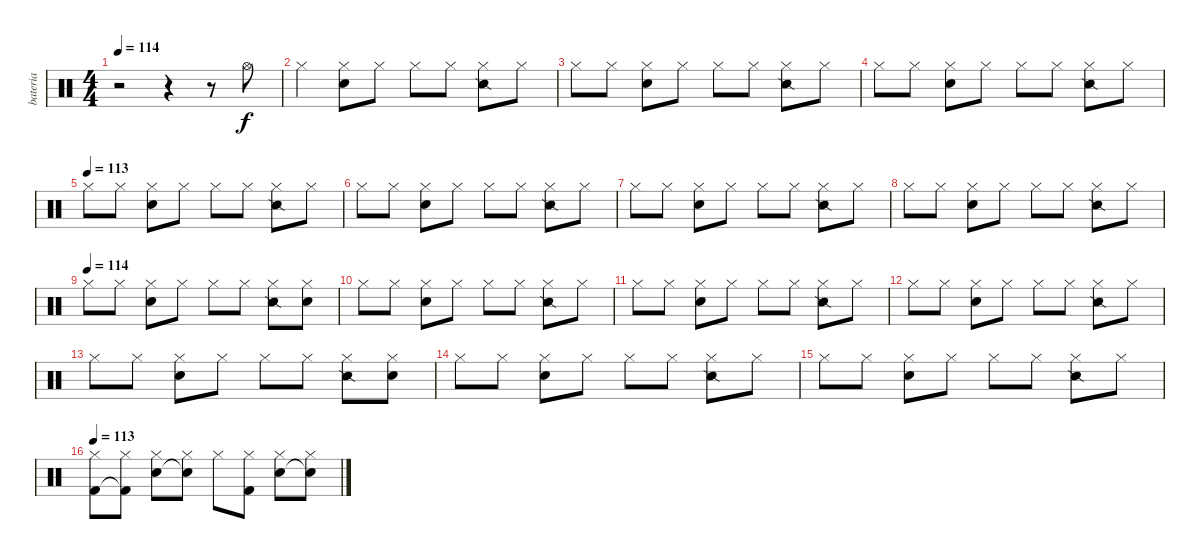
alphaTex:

\track ("bateria" "bateria") {instrument percussion}
\staff {score}
\articulation defaults
\ts (4 4)
\tempo 114
\clef neutral
\ks c
r.2{dy f} r.4 r.8 "Hi-Hat (open)".8 |
"Hi-Hat (closed)".4 ("Hi-Hat (closed)" "Hand Clap (hit)").8 "Hi-Hat (closed)".8 "Hi-Hat (closed)".8 "Hi-Hat (closed)".8 ("Hi-Hat (closed)" "Snare (side stick) 2").8 "Hi-Hat (closed)".8 |
"Hi-Hat (closed)".8 "Hi-Hat (closed)".8 ("Hi-Hat (closed)" "Hand Clap (hit)").8 "Hi-Hat (closed)".8 "Hi-Hat (closed)".8 "Hi-Hat (closed)".8 ("Hi-Hat (closed)" "Snare (side stick) 2").8 "Hi-Hat (closed)".8 |
"Hi-Hat (closed)".8 "Hi-Hat (closed)".8 ("Hi-Hat (closed)" "Hand Clap (hit)").8 "Hi-Hat (closed)".8 "Hi-Hat (closed)".8 "Hi-Hat (closed)".8 ("Hi-Hat (closed)" "Snare (side stick) 2").8 "Hi-Hat (closed)".8 |
\tempo (113)
"Hi-Hat (closed)".8 "Hi-Hat (closed)".8 ("Hi-Hat (closed)" "Hand Clap (hit)").8 "Hi-Hat (closed)".8 "Hi-Hat (closed)".8 "Hi-Hat (closed)".8 ("Hi-Hat (closed)" "Snare (side stick) 2").8 "Hi-Hat (closed)".8 |
"Hi-Hat (closed)".8 "Hi-Hat (closed)".8 ("Hi-Hat (closed)" "Hand Clap (hit)").8 "Hi-Hat (closed)".8 "Hi-Hat (closed)".8 "Hi-Hat (closed)".8 ("Hi-Hat (closed)" "Snare (side stick) 2").8 "Hi-Hat (closed)".8 |
"Hi-Hat (closed)".8 "Hi-Hat (closed)".8 ("Hi-Hat (closed)" "Hand Clap (hit)").8 "Hi-Hat (closed)".8 "Hi-Hat (closed)".8 "Hi-Hat (closed)".8 ("Hi-Hat (closed)" "Snare (side stick) 2").8 "Hi-Hat (closed)".8 |
"Hi-Hat (closed)".8 "Hi-Hat (closed)".8 ("Hi-Hat (closed)" "Hand Clap (hit)").8 "Hi-Hat (closed)".8 "Hi-Hat (closed)".8 "Hi-Hat (closed)".8 ("Hi-Hat (closed)" "Snare (side stick) 2").8 "Hi-Hat (closed)".8 |
\tempo (114)
"Hi-Hat (closed)".8 "Hi-Hat (closed)".8 ("Hi-Hat (closed)" "Hand Clap (hit)").8 "Hi-Hat (closed)".8 "Hi-Hat (closed)".8 "Hi-Hat (closed)".8 ("Hi-Hat (closed)" "Snare (side stick) 2").8 ("Hi-Hat (closed)" "Hand Clap (hit)").8 |
"Hi-Hat (closed)".8 "Hi-Hat (closed)".8 ("Hi-Hat (closed)" "Hand Clap (hit)").8 "Hi-Hat (closed)".8 "Hi-Hat (closed)".8 "Hi-Hat (closed)".8 ("Hi-Hat (closed)" "Snare (side stick) 2").8 "Hi-Hat (closed)".8 |
"Hi-Hat (closed)".8 "Hi-Hat (closed)".8 ("Hi-Hat (closed)" "Hand Clap (hit)").8 "Hi-Hat (closed)".8 "Hi-Hat (closed)".8 "Hi-Hat (closed)".8 ("Hi-Hat (closed)" "Snare (side stick) 2").8 "Hi-Hat (closed)".8 |
"Hi-Hat (closed)".8 "Hi-Hat (closed)".8 ("Hi-Hat (closed)" "Hand Clap (hit)").8 "Hi-Hat (closed)".8 "Hi-Hat (closed)".8 "Hi-Hat (closed)".8 ("Hi-Hat (closed)" "Snare (side stick) 2").8 "Hi-Hat (closed)".8 |
"Hi-Hat (closed)".8 "Hi-Hat (closed)".8 ("Hi-Hat (closed)" "Hand Clap (hit)").8 "Hi-Hat (closed)".8 "Hi-Hat (closed)".8 "Hi-Hat (closed)".8 ("Hi-Hat (closed)" "Snare (side stick) 2").8 ("Hi-Hat (closed)" "Hand Clap (hit)").8 |
"Hi-Hat (closed)".8 "Hi-Hat (closed)".8 ("Hi-Hat (closed)" "Hand Clap (hit)").8 "Hi-Hat (closed)".8 "Hi-Hat (closed)".8 "Hi-Hat (closed)".8 ("Hi-Hat (closed)" "Snare (side stick) 2").8 "Hi-Hat (closed)".8 |
"Hi-Hat (closed)".8 "Hi-Hat (closed)".8 ("Hi-Hat (closed)" "Hand Clap (hit)").8 "Hi-Hat (closed)".8 "Hi-Hat (closed)".8 "Hi-Hat (closed)".8 ("Hi-Hat (closed)" "Snare (side stick) 2").8 "Hi-Hat (closed)".8 |
\tempo 113
("Hi-Hat (closed)" "Kick (hit) 2").8 ("Hi-Hat (closed)" "Kick (hit) 2"{t}).8 ("Hi-Hat (closed)" "Snare (hit) 2").8 ("Hi-Hat (closed)" "Snare (hit) 2"{t}).8 "Hi-Hat (closed)".8 ("Hi-Hat (closed)" "Kick (hit) 2").8 ("Hi-Hat (closed)" "Snare (hit) 2").8 ("Hi-Hat (closed)" "Snare (hit) 2"{t}).8
